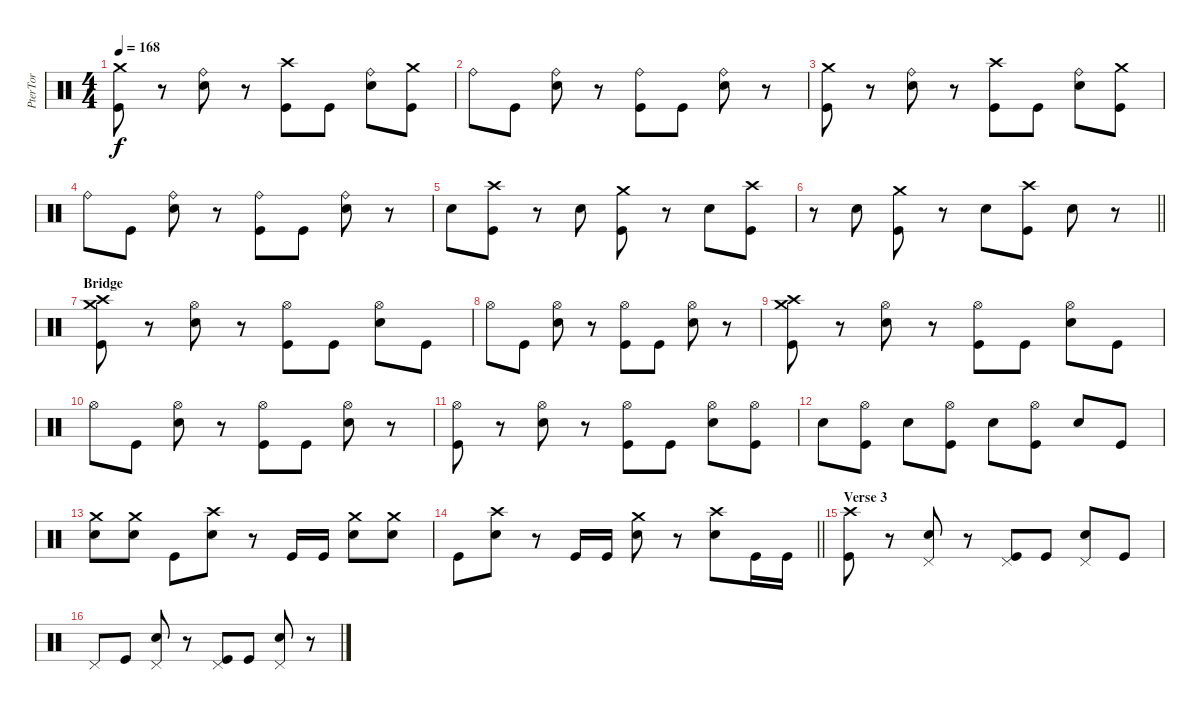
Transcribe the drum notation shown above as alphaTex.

\track ("PterTor" "PterTor") {instrument percussion}
\staff {score}
\articulation defaults
\ts (4 4)
\tempo 168
\clef neutral
\ks c
("Crash medium (hit)" "Kick (hit)").8{dy f} r.8 ("Ride (bell)" "Electric Snare (hit)").8 r.8 ("Crash high (hit)" "Kick (hit)").8 "Kick (hit)".8 ("Ride (bell)" "Electric Snare (hit)").8 ("Crash medium (hit)" "Kick (hit)").8 |
"Ride (bell)".8 "Kick (hit)".8 ("Ride (bell)" "Electric Snare (hit)").8 r.8 ("Ride (bell)" "Kick (hit)").8 "Kick (hit)".8 ("Ride (bell)" "Electric Snare (hit)").8 r.8 |
("Crash medium (hit)" "Kick (hit)").8 r.8 ("Ride (bell)" "Electric Snare (hit)").8 r.8 ("Crash high (hit)" "Kick (hit)").8 "Kick (hit)".8 ("Ride (bell)" "Electric Snare (hit)").8 ("Crash medium (hit)" "Kick (hit)").8 |
"Ride (bell)".8 "Kick (hit)".8 ("Ride (bell)" "Electric Snare (hit)").8 r.8 ("Ride (bell)" "Kick (hit)").8 "Kick (hit)".8 ("Ride (bell)" "Electric Snare (hit)").8 r.8 |
"Electric Snare (hit)".8 ("Crash high (hit)" "Kick (hit)").8 r.8 "Electric Snare (hit)".8 ("Crash medium (hit)" "Kick (hit)").8 r.8 "Electric Snare (hit)".8 ("Crash high (hit)" "Kick (hit)").8 |
\barLineRight lightlight
r.8 "Electric Snare (hit)".8 ("Crash medium (hit)" "Kick (hit)").8 r.8 "Electric Snare (hit)".8 ("Crash high (hit)" "Kick (hit)").8 "Electric Snare (hit)".8 r.8 |
\section ("" "Bridge")
("Crash high (hit)" "Crash medium (hit)" "Kick (hit)").8 r.8 ("Hi-Hat (open)" "Electric Snare (hit)").8 r.8 ("Hi-Hat (open)" "Kick (hit)").8 "Kick (hit)".8 ("Hi-Hat (open)" "Electric Snare (hit)").8 "Kick (hit)".8 |
"Hi-Hat (open)".8 "Kick (hit)".8 ("Hi-Hat (open)" "Electric Snare (hit)").8 r.8 ("Hi-Hat (open)" "Kick (hit)").8 "Kick (hit)".8 ("Hi-Hat (open)" "Electric Snare (hit)").8 r.8 |
("Crash high (hit)" "Crash medium (hit)" "Kick (hit)").8 r.8 ("Hi-Hat (open)" "Electric Snare (hit)").8 r.8 ("Hi-Hat (open)" "Kick (hit)").8 "Kick (hit)".8 ("Hi-Hat (open)" "Electric Snare (hit)").8 "Kick (hit)".8 |
"Hi-Hat (open)".8 "Kick (hit)".8 ("Hi-Hat (open)" "Electric Snare (hit)").8 r.8 ("Hi-Hat (open)" "Kick (hit)").8 "Kick (hit)".8 ("Hi-Hat (open)" "Electric Snare (hit)").8 r.8 |
("Hi-Hat (open)" "Kick (hit)").8 r.8 ("Hi-Hat (open)" "Electric Snare (hit)").8 r.8 ("Hi-Hat (open)" "Kick (hit)").8 "Kick (hit)".8 ("Hi-Hat (open)" "Electric Snare (hit)").8 ("Hi-Hat (open)" "Kick (hit)").8 |
"Electric Snare (hit)".8 ("Hi-Hat (open)" "Kick (hit)").8 "Electric Snare (hit)".8 ("Hi-Hat (open)" "Kick (hit)").8 "Electric Snare (hit)".8 ("Hi-Hat (open)" "Kick (hit)").8 "Electric Snare (hit)".8 "Kick (hit)".8 |
("Crash medium (hit)" "Electric Snare (hit)").8 ("Crash medium (hit)" "Electric Snare (hit)").8 "Kick (hit)".8 ("Crash high (hit)" "Electric Snare (hit)").8 r.8 "Kick (hit)".16 "Kick (hit)".16 ("Crash medium (hit)" "Electric Snare (hit)").8 ("Crash medium (hit)" "Electric Snare (hit)").8 |
\barLineRight lightlight "Kick (hit)".8
("Crash high (hit)" "Electric Snare (hit)").8 r.8 "Kick (hit)".16 "Kick (hit)".16 ("Crash medium (hit)" "Electric Snare (hit)").8 r.8 ("Crash high (hit)" "Electric Snare (hit)").8 "Kick (hit)".16 "Kick (hit)".16 |
\section ("" "Verse 3")
("Crash high (hit)" "Kick (hit)").8 r.8 ("Pedal Hi-Hat (hit)" "Electric Snare (hit)").8 r.8 ("Pedal Hi-Hat (hit)" "Kick (hit)").8 "Kick (hit)".8 ("Pedal Hi-Hat (hit)" "Electric Snare (hit)").8 "Kick (hit)".8 |
"Pedal Hi-Hat (hit)".8 "Kick (hit)".8 ("Pedal Hi-Hat (hit)" "Electric Snare (hit)").8 r.8 ("Pedal Hi-Hat (hit)" "Kick (hit)").8 "Kick (hit)".8 ("Pedal Hi-Hat (hit)" "Electric Snare (hit)").8 r.8
